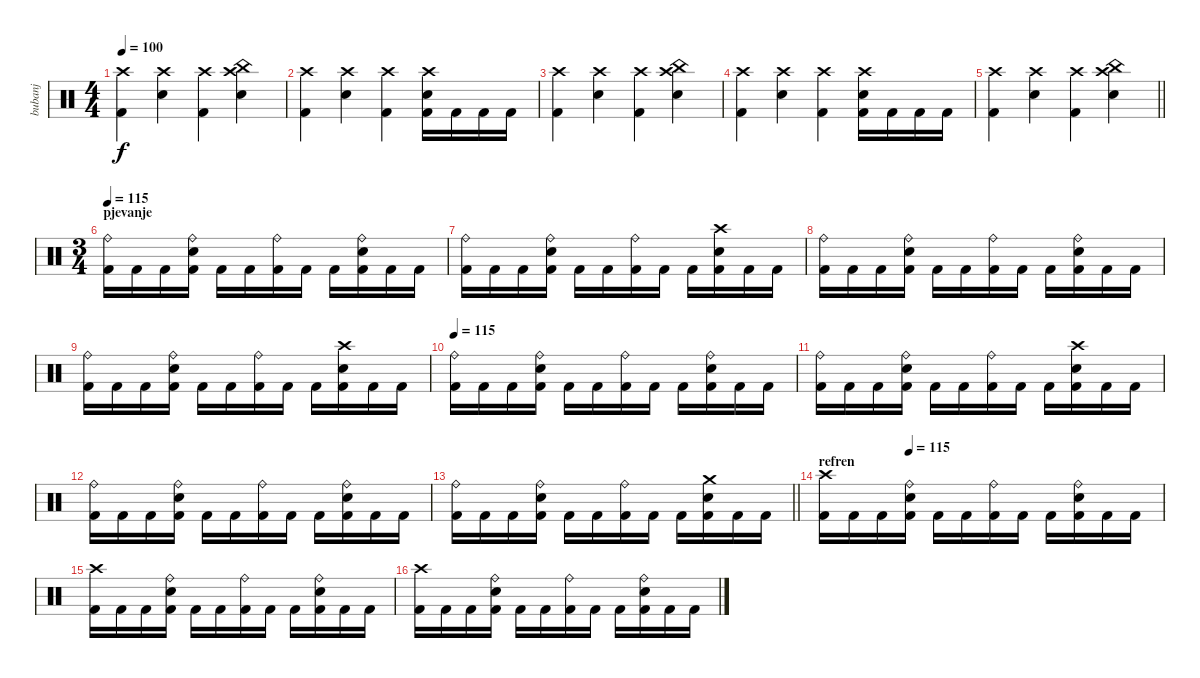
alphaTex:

\track ("bubanj" "bubanj") {instrument percussion}
\staff {score}
\articulation defaults
\ts (4 4)
\tempo 100
\clef neutral
\ks c
("Crash high (hit)" "Kick (hit) 2").4{dy f} ("Crash high (hit)" "Electric Snare (hit)").4 ("Crash high (hit)" "Kick (hit) 2").4 ("China (hit)" "Crash high (hit)" "Electric Snare (hit)").4 |
("Crash high (hit)" "Kick (hit) 2").4 ("Crash high (hit)" "Electric Snare (hit)").4 ("Crash high (hit)" "Kick (hit) 2").4 ("Crash high (hit)" "Electric Snare (hit)" "Kick (hit) 2").16 "Kick (hit) 2".16 "Kick (hit) 2".16 "Kick (hit) 2".16 |
("Crash high (hit)" "Kick (hit) 2").4 ("Crash high (hit)" "Electric Snare (hit)").4 ("Crash high (hit)" "Kick (hit) 2").4 ("China (hit)" "Crash high (hit)" "Electric Snare (hit)").4 |
("Crash high (hit)" "Kick (hit) 2").4 ("Crash high (hit)" "Electric Snare (hit)").4 ("Crash high (hit)" "Kick (hit) 2").4 ("Crash high (hit)" "Electric Snare (hit)" "Kick (hit) 2").16 "Kick (hit) 2".16 "Kick (hit) 2".16 "Kick (hit) 2".16 |
\barLineRight lightlight
("Crash high (hit)" "Kick (hit) 2").4 ("Crash high (hit)" "Electric Snare (hit)").4 ("Crash high (hit)" "Kick (hit) 2").4 ("China (hit)" "Crash high (hit)" "Electric Snare (hit)").4 |
\ts (3 4)
\section ("" "pjevanje")
\tempo 115
("Ride (bell)" "Kick (hit) 2").16 "Kick (hit) 2".16 "Kick (hit) 2".16 ("Ride (bell)" "Electric Snare (hit)" "Kick (hit) 2").16 "Kick (hit) 2".16 "Kick (hit) 2".16 ("Ride (bell)" "Kick (hit) 2").16 "Kick (hit) 2".16 "Kick (hit) 2".16 ("Ride (bell)" "Electric Snare (hit)" "Kick (hit) 2").16 "Kick (hit) 2".16 "Kick (hit) 2".16 |
("Ride (bell)" "Kick (hit) 2").16 "Kick (hit) 2".16 "Kick (hit) 2".16 ("Ride (bell)" "Electric Snare (hit)" "Kick (hit) 2").16 "Kick (hit) 2".16 "Kick (hit) 2".16 ("Ride (bell)" "Kick (hit) 2").16 "Kick (hit) 2".16 "Kick (hit) 2".16 ("Crash high (hit)" "Electric Snare (hit)" "Kick (hit) 2").16 "Kick (hit) 2".16 "Kick (hit) 2".16 |
("Ride (bell)" "Kick (hit) 2").16 "Kick (hit) 2".16 "Kick (hit) 2".16 ("Ride (bell)" "Electric Snare (hit)" "Kick (hit) 2").16 "Kick (hit) 2".16 "Kick (hit) 2".16 ("Ride (bell)" "Kick (hit) 2").16 "Kick (hit) 2".16 "Kick (hit) 2".16 ("Ride (bell)" "Electric Snare (hit)" "Kick (hit) 2").16 "Kick (hit) 2".16 "Kick (hit) 2".16 |
("Ride (bell)" "Kick (hit) 2").16 "Kick (hit) 2".16 "Kick (hit) 2".16 ("Ride (bell)" "Electric Snare (hit)" "Kick (hit) 2").16 "Kick (hit) 2".16 "Kick (hit) 2".16 ("Ride (bell)" "Kick (hit) 2").16 "Kick (hit) 2".16 "Kick (hit) 2".16 ("Crash high (hit)" "Electric Snare (hit)" "Kick (hit) 2").16 "Kick (hit) 2".16 "Kick (hit) 2".16 |
\tempo 115
("Ride (bell)" "Kick (hit) 2").16 "Kick (hit) 2".16 "Kick (hit) 2".16 ("Ride (bell)" "Electric Snare (hit)" "Kick (hit) 2").16 "Kick (hit) 2".16 "Kick (hit) 2".16 ("Ride (bell)" "Kick (hit) 2").16 "Kick (hit) 2".16 "Kick (hit) 2".16 ("Ride (bell)" "Electric Snare (hit)" "Kick (hit) 2").16 "Kick (hit) 2".16 "Kick (hit) 2".16 |
("Ride (bell)" "Kick (hit) 2").16 "Kick (hit) 2".16 "Kick (hit) 2".16 ("Ride (bell)" "Electric Snare (hit)" "Kick (hit) 2").16 "Kick (hit) 2".16 "Kick (hit) 2".16 ("Ride (bell)" "Kick (hit) 2").16 "Kick (hit) 2".16 "Kick (hit) 2".16 ("Crash high (hit)" "Electric Snare (hit)" "Kick (hit) 2").16 "Kick (hit) 2".16 "Kick (hit) 2".16 |
("Ride (bell)" "Kick (hit) 2").16 "Kick (hit) 2".16 "Kick (hit) 2".16 ("Ride (bell)" "Electric Snare (hit)" "Kick (hit) 2").16 "Kick (hit) 2".16 "Kick (hit) 2".16 ("Ride (bell)" "Kick (hit) 2").16 "Kick (hit) 2".16 "Kick (hit) 2".16 ("Ride (bell)" "Electric Snare (hit)" "Kick (hit) 2").16 "Kick (hit) 2".16 "Kick (hit) 2".16 |
\barLineRight lightlight
("Ride (bell)" "Kick (hit) 2").16 "Kick (hit) 2".16 "Kick (hit) 2".16 ("Ride (bell)" "Electric Snare (hit)" "Kick (hit) 2").16 "Kick (hit) 2".16 "Kick (hit) 2".16 ("Ride (bell)" "Kick (hit) 2").16 "Kick (hit) 2".16 "Kick (hit) 2".16 ("Crash medium (hit)" "Electric Snare (hit)" "Kick (hit) 2").16 "Kick (hit) 2".16 "Kick (hit) 2".16 |
\section ("" "refren")
\tempo (115 0.25)
("Crash high (hit)" "Kick (hit) 2").16 "Kick (hit) 2".16 "Kick (hit) 2".16 ("Ride (bell)" "Electric Snare (hit)" "Kick (hit) 2").16 "Kick (hit) 2".16 "Kick (hit) 2".16 ("Ride (bell)" "Kick (hit) 2").16 "Kick (hit) 2".16 "Kick (hit) 2".16 ("Ride (bell)" "Electric Snare (hit)" "Kick (hit) 2").16 "Kick (hit) 2".16 "Kick (hit) 2".16 |
("Crash high (hit)" "Kick (hit) 2").16 "Kick (hit) 2".16 "Kick (hit) 2".16 ("Ride (bell)" "Electric Snare (hit)" "Kick (hit) 2").16 "Kick (hit) 2".16 "Kick (hit) 2".16 ("Ride (bell)" "Kick (hit) 2").16 "Kick (hit) 2".16 "Kick (hit) 2".16 ("Ride (bell)" "Electric Snare (hit)" "Kick (hit) 2").16 "Kick (hit) 2".16 "Kick (hit) 2".16 |
("Crash high (hit)" "Kick (hit) 2").16 "Kick (hit) 2".16 "Kick (hit) 2".16 ("Ride (bell)" "Electric Snare (hit)" "Kick (hit) 2").16 "Kick (hit) 2".16 "Kick (hit) 2".16 ("Ride (bell)" "Kick (hit) 2").16 "Kick (hit) 2".16 "Kick (hit) 2".16 ("Ride (bell)" "Electric Snare (hit)" "Kick (hit) 2").16 "Kick (hit) 2".16 "Kick (hit) 2".16
